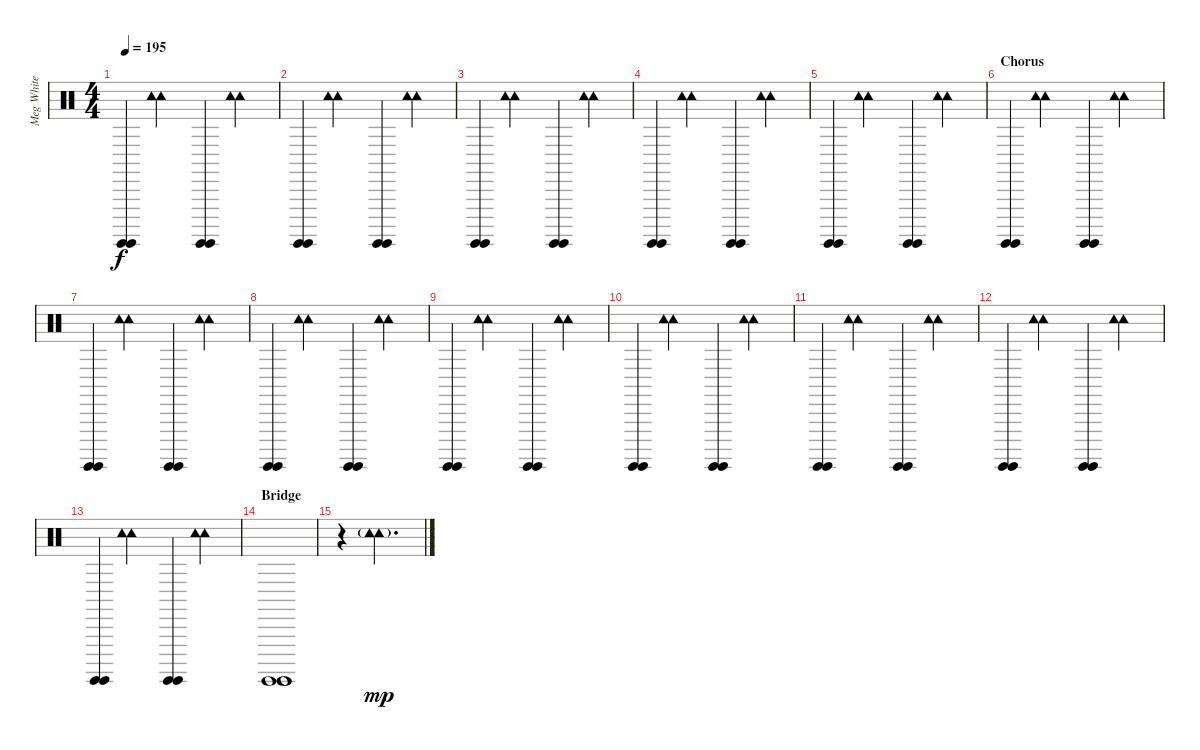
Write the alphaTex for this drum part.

\track ("Meg White" "Meg White") {instrument percussion}
\staff {score}
\articulation defaults
\ts (4 4)
\tempo 195
\clef neutral
\ks c
("Surdo (hit)" "Surdo (hit)").4{dy f} ("Tambourine (hit)" "Tambourine (hit)").4 ("Surdo (hit)" "Surdo (hit)").4 ("Tambourine (hit)" "Tambourine (hit)").4 |
("Surdo (hit)" "Surdo (hit)").4 ("Tambourine (hit)" "Tambourine (hit)").4 ("Surdo (hit)" "Surdo (hit)").4 ("Tambourine (hit)" "Tambourine (hit)").4 |
("Surdo (hit)" "Surdo (hit)").4 ("Tambourine (hit)" "Tambourine (hit)").4 ("Surdo (hit)" "Surdo (hit)").4 ("Tambourine (hit)" "Tambourine (hit)").4 |
("Surdo (hit)" "Surdo (hit)").4 ("Tambourine (hit)" "Tambourine (hit)").4 ("Surdo (hit)" "Surdo (hit)").4 ("Tambourine (hit)" "Tambourine (hit)").4 |
("Surdo (hit)" "Surdo (hit)").4 ("Tambourine (hit)" "Tambourine (hit)").4 ("Surdo (hit)" "Surdo (hit)").4 ("Tambourine (hit)" "Tambourine (hit)").4 |
\section ("" "Chorus")
("Surdo (hit)" "Surdo (hit)").4 ("Tambourine (hit)" "Tambourine (hit)").4 ("Surdo (hit)" "Surdo (hit)").4 ("Tambourine (hit)" "Tambourine (hit)").4 |
("Surdo (hit)" "Surdo (hit)").4 ("Tambourine (hit)" "Tambourine (hit)").4 ("Surdo (hit)" "Surdo (hit)").4 ("Tambourine (hit)" "Tambourine (hit)").4 |
("Surdo (hit)" "Surdo (hit)").4 ("Tambourine (hit)" "Tambourine (hit)").4 ("Surdo (hit)" "Surdo (hit)").4 ("Tambourine (hit)" "Tambourine (hit)").4 |
("Surdo (hit)" "Surdo (hit)").4 ("Tambourine (hit)" "Tambourine (hit)").4 ("Surdo (hit)" "Surdo (hit)").4 ("Tambourine (hit)" "Tambourine (hit)").4 |
("Surdo (hit)" "Surdo (hit)").4 ("Tambourine (hit)" "Tambourine (hit)").4 ("Surdo (hit)" "Surdo (hit)").4 ("Tambourine (hit)" "Tambourine (hit)").4 |
("Surdo (hit)" "Surdo (hit)").4 ("Tambourine (hit)" "Tambourine (hit)").4 ("Surdo (hit)" "Surdo (hit)").4 ("Tambourine (hit)" "Tambourine (hit)").4 |
("Surdo (hit)" "Surdo (hit)").4 ("Tambourine (hit)" "Tambourine (hit)").4 ("Surdo (hit)" "Surdo (hit)").4 ("Tambourine (hit)" "Tambourine (hit)").4 |
("Surdo (hit)" "Surdo (hit)").4 ("Tambourine (hit)" "Tambourine (hit)").4 ("Surdo (hit)" "Surdo (hit)").4 ("Tambourine (hit)" "Tambourine (hit)").4 |
\section ("" "Bridge")
("Surdo (hit)" "Surdo (hit)" "Surdo (hit)").1{volume 16} |
r.4 ("Tambourine (hit)"{g} "Tambourine (hit)"{g}).2{d dy mp}
